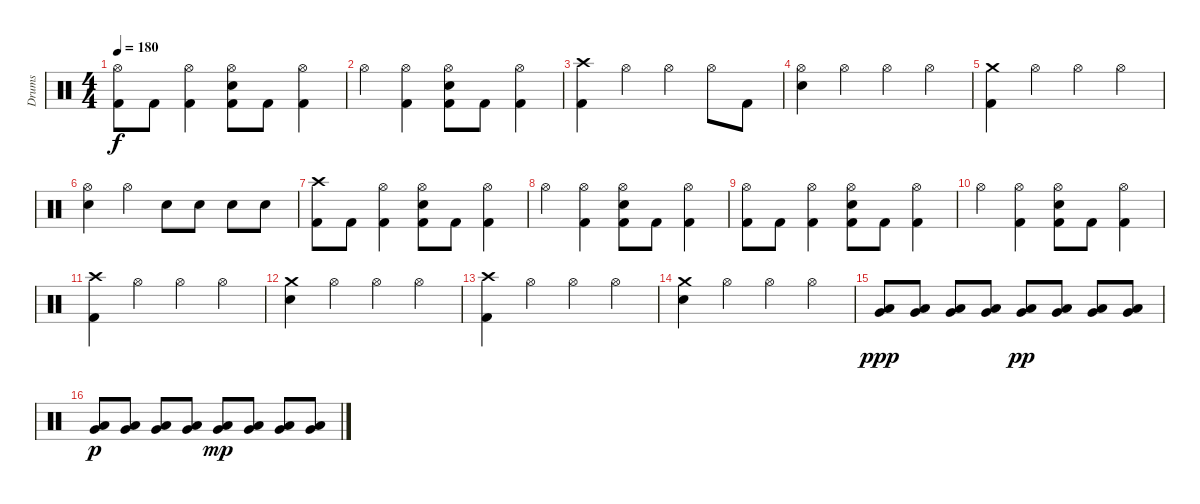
\track ("Drums" "Drums") {instrument percussion}
\staff {score}
\articulation defaults
\ts (4 4)
\tempo 180
\clef neutral
\ks c
("Hi-Hat (open)" "Kick (hit) 2").8{dy f} "Kick (hit) 2".8 ("Hi-Hat (open)" "Kick (hit) 2").4 ("Hi-Hat (open)" "Snare (hit) 2" "Kick (hit) 2").8 "Kick (hit) 2".8 ("Hi-Hat (open)" "Kick (hit) 2").4 |
"Hi-Hat (open)".4 ("Hi-Hat (open)" "Kick (hit) 2").4 ("Hi-Hat (open)" "Snare (hit) 2" "Kick (hit) 2").8 "Kick (hit) 2".8 ("Hi-Hat (open)" "Kick (hit) 2").4 |
("Crash high (hit)" "Kick (hit) 2").4 "Hi-Hat (open)".4 "Hi-Hat (open)".4 "Hi-Hat (open)".8 "Kick (hit) 2".8 |
("Hi-Hat (open)" "Snare (hit) 2").4 "Hi-Hat (open)".4 "Hi-Hat (open)".4 "Hi-Hat (open)".4 |
("Crash medium (hit)" "Kick (hit) 2").4 "Hi-Hat (open)".4 "Hi-Hat (open)".4 "Hi-Hat (open)".4 |
("Hi-Hat (open)" "Snare (hit) 2").4 "Hi-Hat (open)".4 "Snare (hit) 2".8 "Snare (hit) 2".8 "Snare (hit) 2".8 "Snare (hit) 2".8 |
("Crash high (hit)" "Kick (hit) 2").8 "Kick (hit) 2".8 ("Hi-Hat (open)" "Kick (hit) 2").4 ("Hi-Hat (open)" "Snare (hit) 2" "Kick (hit) 2").8 "Kick (hit) 2".8 ("Hi-Hat (open)" "Kick (hit) 2").4 |
"Hi-Hat (open)".4 ("Hi-Hat (open)" "Kick (hit) 2").4 ("Hi-Hat (open)" "Snare (hit) 2" "Kick (hit) 2").8 "Kick (hit) 2".8 ("Hi-Hat (open)" "Kick (hit) 2").4 |
("Hi-Hat (open)" "Kick (hit) 2").8 "Kick (hit) 2".8 ("Hi-Hat (open)" "Kick (hit) 2").4 ("Hi-Hat (open)" "Snare (hit) 2" "Kick (hit) 2").8 "Kick (hit) 2".8 ("Hi-Hat (open)" "Kick (hit) 2").4 |
"Hi-Hat (open)".4 ("Hi-Hat (open)" "Kick (hit) 2").4 ("Hi-Hat (open)" "Snare (hit) 2" "Kick (hit) 2").8 "Kick (hit) 2".8 ("Hi-Hat (open)" "Kick (hit) 2").4 |
("Crash high (hit)" "Kick (hit) 2").4 "Hi-Hat (open)".4 "Hi-Hat (open)".4 "Hi-Hat (open)".4 |
("Crash medium (hit)" "Snare (hit) 2").4 "Hi-Hat (open)".4 "Hi-Hat (open)".4 "Hi-Hat (open)".4 |
("Crash high (hit)" "Kick (hit) 2").4 "Hi-Hat (open)".4 "Hi-Hat (open)".4 "Hi-Hat (open)".4 |
("Crash medium (hit)" "Snare (hit) 2").4 "Hi-Hat (open)".4 "Hi-Hat (open)".4 "Hi-Hat (open)".4 |
("Very Low Tom (hit)" "Low Floor Tom (hit)").8{dy ppp} ("Very Low Tom (hit)" "Low Floor Tom (hit)").8 ("Very Low Tom (hit)" "Low Floor Tom (hit)").8 ("Very Low Tom (hit)" "Low Floor Tom (hit)").8 ("Very Low Tom (hit)" "Low Floor Tom (hit)").8{dy pp} ("Very Low Tom (hit)" "Low Floor Tom (hit)").8 ("Very Low Tom (hit)" "Low Floor Tom (hit)").8 ("Very Low Tom (hit)" "Low Floor Tom (hit)").8 |
("Very Low Tom (hit)" "Low Floor Tom (hit)").8{dy p} ("Very Low Tom (hit)" "Low Floor Tom (hit)").8 ("Very Low Tom (hit)" "Low Floor Tom (hit)").8 ("Very Low Tom (hit)" "Low Floor Tom (hit)").8 ("Very Low Tom (hit)" "Low Floor Tom (hit)").8{dy mp} ("Very Low Tom (hit)" "Low Floor Tom (hit)").8 ("Very Low Tom (hit)" "Low Floor Tom (hit)").8 ("Very Low Tom (hit)" "Low Floor Tom (hit)").8
